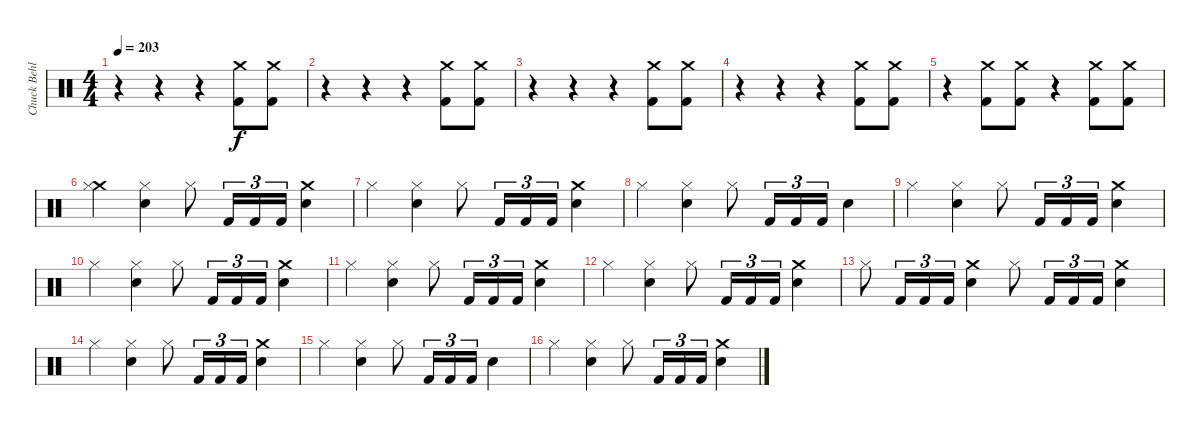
\track ("Chuck Behler" "Chuck Behl") {instrument percussion}
\staff {score}
\articulation defaults
\ts (4 4)
\tempo 203
\clef neutral
\ks c
r.4{dy f volume 0} r.4 r.4 ("Crash medium (hit)" "Kick (hit) 2").8{volume 16} ("Crash medium (hit)" "Kick (hit) 2").8 |
r.4{volume 0} r.4 r.4 ("Crash medium (hit)" "Kick (hit) 2").8{volume 16} ("Crash medium (hit)" "Kick (hit) 2").8 |
r.4{volume 0} r.4 r.4 ("Crash medium (hit)" "Kick (hit) 2").8{volume 16} ("Crash medium (hit)" "Kick (hit) 2").8 |
r.4{volume 0} r.4 r.4 ("Crash medium (hit)" "Kick (hit) 2").8{volume 16} ("Crash medium (hit)" "Kick (hit) 2").8 |
r.4 ("Crash medium (hit)" "Kick (hit) 2").8 ("Crash medium (hit)" "Kick (hit) 2").8 r.4 ("Crash medium (hit)" "Kick (hit) 2").8 ("Crash medium (hit)" "Kick (hit) 2").8 |
("Crash medium (hit)" "Hi-Hat (closed)").4 ("Hi-Hat (closed)" "Snare (hit) 2").4 "Hi-Hat (closed)".8 "Kick (hit) 2".16{tu (3 2)} "Kick (hit) 2".16{tu (3 2)} "Kick (hit) 2".16{tu (3 2)} ("Crash medium (hit)" "Snare (hit) 2").4 |
"Hi-Hat (closed)".4 ("Hi-Hat (closed)" "Snare (hit) 2").4 "Hi-Hat (closed)".8 "Kick (hit) 2".16{tu (3 2)} "Kick (hit) 2".16{tu (3 2)} "Kick (hit) 2".16{tu (3 2)} ("Crash medium (hit)" "Snare (hit) 2").4 |
"Hi-Hat (closed)".4 ("Hi-Hat (closed)" "Snare (hit) 2").4 "Hi-Hat (closed)".8 "Kick (hit) 2".16{tu (3 2)} "Kick (hit) 2".16{tu (3 2)} "Kick (hit) 2".16{tu (3 2)} "Snare (hit) 2".4 |
"Hi-Hat (closed)".4 ("Hi-Hat (closed)" "Snare (hit) 2").4 "Hi-Hat (closed)".8 "Kick (hit) 2".16{tu (3 2)} "Kick (hit) 2".16{tu (3 2)} "Kick (hit) 2".16{tu (3 2)} ("Crash medium (hit)" "Snare (hit) 2").4 |
"Hi-Hat (closed)".4 ("Hi-Hat (closed)" "Snare (hit) 2").4 "Hi-Hat (closed)".8 "Kick (hit) 2".16{tu (3 2)} "Kick (hit) 2".16{tu (3 2)} "Kick (hit) 2".16{tu (3 2)} ("Crash medium (hit)" "Snare (hit) 2").4 |
"Hi-Hat (closed)".4 ("Hi-Hat (closed)" "Snare (hit) 2").4 "Hi-Hat (closed)".8 "Kick (hit) 2".16{tu (3 2)} "Kick (hit) 2".16{tu (3 2)} "Kick (hit) 2".16{tu (3 2)} ("Crash medium (hit)" "Snare (hit) 2").4 |
"Hi-Hat (closed)".4 ("Hi-Hat (closed)" "Snare (hit) 2").4 "Hi-Hat (closed)".8 "Kick (hit) 2".16{tu (3 2)} "Kick (hit) 2".16{tu (3 2)} "Kick (hit) 2".16{tu (3 2)} ("Crash medium (hit)" "Snare (hit) 2").4 |
"Hi-Hat (closed)".8 "Kick (hit) 2".16{tu (3 2)} "Kick (hit) 2".16{tu (3 2)} "Kick (hit) 2".16{tu (3 2)} ("Crash medium (hit)" "Snare (hit) 2").4 "Hi-Hat (closed)".8 "Kick (hit) 2".16{tu (3 2)} "Kick (hit) 2".16{tu (3 2)} "Kick (hit) 2".16{tu (3 2)} ("Crash medium (hit)" "Snare (hit) 2").4 |
"Hi-Hat (closed)".4 ("Hi-Hat (closed)" "Snare (hit) 2").4 "Hi-Hat (closed)".8 "Kick (hit) 2".16{tu (3 2)} "Kick (hit) 2".16{tu (3 2)} "Kick (hit) 2".16{tu (3 2)} ("Crash medium (hit)" "Snare (hit) 2").4 |
"Hi-Hat (closed)".4 ("Hi-Hat (closed)" "Snare (hit) 2").4 "Hi-Hat (closed)".8 "Kick (hit) 2".16{tu (3 2)} "Kick (hit) 2".16{tu (3 2)} "Kick (hit) 2".16{tu (3 2)} "Snare (hit) 2".4 |
"Hi-Hat (closed)".4 ("Hi-Hat (closed)" "Snare (hit) 2").4 "Hi-Hat (closed)".8 "Kick (hit) 2".16{tu (3 2)} "Kick (hit) 2".16{tu (3 2)} "Kick (hit) 2".16{tu (3 2)} ("Crash medium (hit)" "Snare (hit) 2").4
